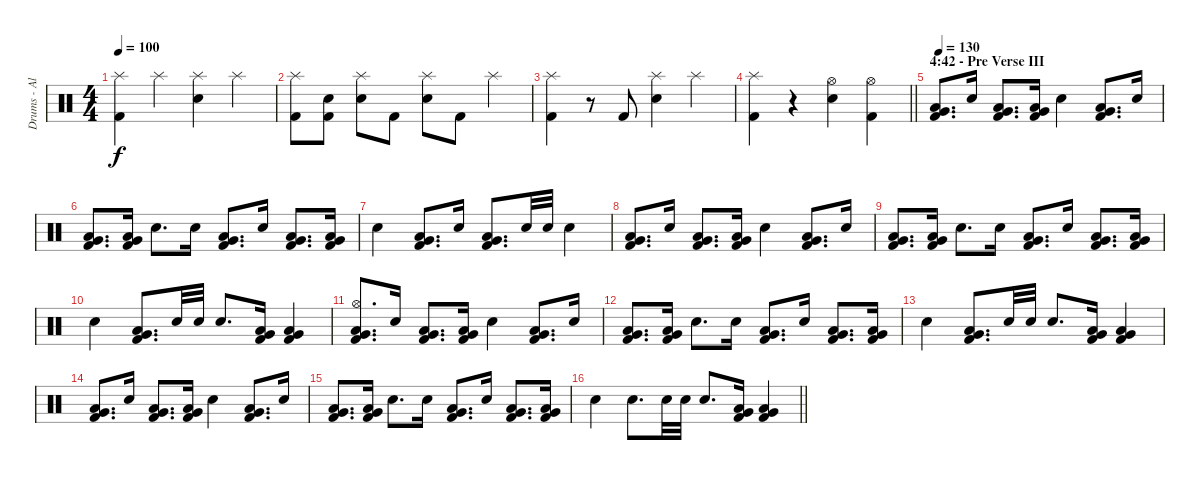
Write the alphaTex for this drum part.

\track ("Drums - Alex Wank" "Drums - Al") {instrument percussion}
\staff {score}
\articulation defaults
\ts (4 4)
\tempo 100
\clef neutral
\ks c
("Splash (hit)" "Kick (hit) 2").4{dy f} "Splash (hit)".4 ("Splash (hit)" "Electric Snare (hit)").4 "Splash (hit)".4 |
("Splash (hit)" "Kick (hit) 2").8 ("Electric Snare (hit)" "Kick (hit) 2").8 ("Splash (hit)" "Electric Snare (hit)").8 "Kick (hit) 2".8 ("Splash (hit)" "Electric Snare (hit)").8 "Kick (hit) 2".8 "Splash (hit)".4 |
("Splash (hit)" "Kick (hit) 2").4 r.8 "Kick (hit) 2".8 ("Splash (hit)" "Electric Snare (hit)").4 "Splash (hit)".4 |
\barLineRight lightlight
("Splash (hit)" "Kick (hit) 2").4 r.4 ("Hi-Hat (open)" "Electric Snare (hit)").4 ("Hi-Hat (open)" "Kick (hit) 2").4 |
\section ("" "4:42 - Pre Verse III")
\tempo 130
("Very Low Tom (hit)" "Low Floor Tom (hit)" "Kick (hit) 2").8{d} "Electric Snare (hit)".16 ("Very Low Tom (hit)" "Low Floor Tom (hit)" "Kick (hit) 2").8{d} ("Very Low Tom (hit)" "Low Floor Tom (hit)" "Kick (hit) 2").16 "Electric Snare (hit)".4 ("Very Low Tom (hit)" "Low Floor Tom (hit)" "Kick (hit) 2").8{d} "Electric Snare (hit)".16 |
("Very Low Tom (hit)" "Low Floor Tom (hit)" "Kick (hit) 2").8{d} ("Very Low Tom (hit)" "Low Floor Tom (hit)" "Kick (hit) 2").16 "Electric Snare (hit)".8{d} "Electric Snare (hit)".16 ("Very Low Tom (hit)" "Low Floor Tom (hit)" "Kick (hit) 2").8{d} "Electric Snare (hit)".16 ("Very Low Tom (hit)" "Low Floor Tom (hit)" "Kick (hit) 2").8{d} ("Very Low Tom (hit)" "Low Floor Tom (hit)" "Kick (hit) 2").16 |
"Electric Snare (hit)".4 ("Very Low Tom (hit)" "Low Floor Tom (hit)" "Kick (hit) 2").8{d} "Electric Snare (hit)".16 ("Very Low Tom (hit)" "Low Floor Tom (hit)" "Kick (hit) 2").8{d} "Electric Snare (hit)".32 "Electric Snare (hit)".32 "Electric Snare (hit)".4 |
("Very Low Tom (hit)" "Low Floor Tom (hit)" "Kick (hit) 2").8{d} "Electric Snare (hit)".16 ("Very Low Tom (hit)" "Low Floor Tom (hit)" "Kick (hit) 2").8{d} ("Very Low Tom (hit)" "Low Floor Tom (hit)" "Kick (hit) 2").16 "Electric Snare (hit)".4 ("Very Low Tom (hit)" "Low Floor Tom (hit)" "Kick (hit) 2").8{d} "Electric Snare (hit)".16 |
("Very Low Tom (hit)" "Low Floor Tom (hit)" "Kick (hit) 2").8{d} ("Very Low Tom (hit)" "Low Floor Tom (hit)" "Kick (hit) 2").16 "Electric Snare (hit)".8{d} "Electric Snare (hit)".16 ("Very Low Tom (hit)" "Low Floor Tom (hit)" "Kick (hit) 2").8{d} "Electric Snare (hit)".16 ("Very Low Tom (hit)" "Low Floor Tom (hit)" "Kick (hit) 2").8{d} ("Very Low Tom (hit)" "Low Floor Tom (hit)" "Kick (hit) 2").16 |
"Electric Snare (hit)".4 ("Very Low Tom (hit)" "Low Floor Tom (hit)" "Kick (hit) 2").8{d} "Electric Snare (hit)".32 "Electric Snare (hit)".32 "Electric Snare (hit)".8{d} ("Very Low Tom (hit)" "Low Floor Tom (hit)" "Kick (hit) 2").16 ("Very Low Tom (hit)" "Low Floor Tom (hit)" "Kick (hit) 2").4 |
("Hi-Hat (open)" "Very Low Tom (hit)" "Low Floor Tom (hit)" "Kick (hit) 2").8{d} "Electric Snare (hit)".16 ("Very Low Tom (hit)" "Low Floor Tom (hit)" "Kick (hit) 2").8{d} ("Very Low Tom (hit)" "Low Floor Tom (hit)" "Kick (hit) 2").16 "Electric Snare (hit)".4 ("Very Low Tom (hit)" "Low Floor Tom (hit)" "Kick (hit) 2").8{d} "Electric Snare (hit)".16 |
("Very Low Tom (hit)" "Low Floor Tom (hit)" "Kick (hit) 2").8{d} ("Very Low Tom (hit)" "Low Floor Tom (hit)" "Kick (hit) 2").16 "Electric Snare (hit)".8{d} "Electric Snare (hit)".16 ("Very Low Tom (hit)" "Low Floor Tom (hit)" "Kick (hit) 2").8{d} "Electric Snare (hit)".16 ("Very Low Tom (hit)" "Low Floor Tom (hit)" "Kick (hit) 2").8{d} ("Very Low Tom (hit)" "Low Floor Tom (hit)" "Kick (hit) 2").16 |
"Electric Snare (hit)".4 ("Very Low Tom (hit)" "Low Floor Tom (hit)" "Kick (hit) 2").8{d} "Electric Snare (hit)".32 "Electric Snare (hit)".32 "Electric Snare (hit)".8{d} ("Very Low Tom (hit)" "Low Floor Tom (hit)" "Kick (hit) 2").16 ("Very Low Tom (hit)" "Low Floor Tom (hit)" "Kick (hit) 2").4 |
("Very Low Tom (hit)" "Low Floor Tom (hit)" "Kick (hit) 2").8{d} "Electric Snare (hit)".16 ("Very Low Tom (hit)" "Low Floor Tom (hit)" "Kick (hit) 2").8{d} ("Very Low Tom (hit)" "Low Floor Tom (hit)" "Kick (hit) 2").16 "Electric Snare (hit)".4 ("Very Low Tom (hit)" "Low Floor Tom (hit)" "Kick (hit) 2").8{d} "Electric Snare (hit)".16 |
("Very Low Tom (hit)" "Low Floor Tom (hit)" "Kick (hit) 2").8{d} ("Very Low Tom (hit)" "Low Floor Tom (hit)" "Kick (hit) 2").16 "Electric Snare (hit)".8{d} "Electric Snare (hit)".16 ("Very Low Tom (hit)" "Low Floor Tom (hit)" "Kick (hit) 2").8{d} "Electric Snare (hit)".16 ("Very Low Tom (hit)" "Low Floor Tom (hit)" "Kick (hit) 2").8{d} ("Very Low Tom (hit)" "Low Floor Tom (hit)" "Kick (hit) 2").16 |
\barLineRight lightlight "Electric Snare (hit)".4 "Electric Snare (hit)".8{d} "Electric Snare (hit)".32 "Electric Snare (hit)".32 "Electric Snare (hit)".8{d}
("Very Low Tom (hit)" "Low Floor Tom (hit)" "Kick (hit) 2").16 ("Very Low Tom (hit)" "Low Floor Tom (hit)" "Kick (hit) 2").4
